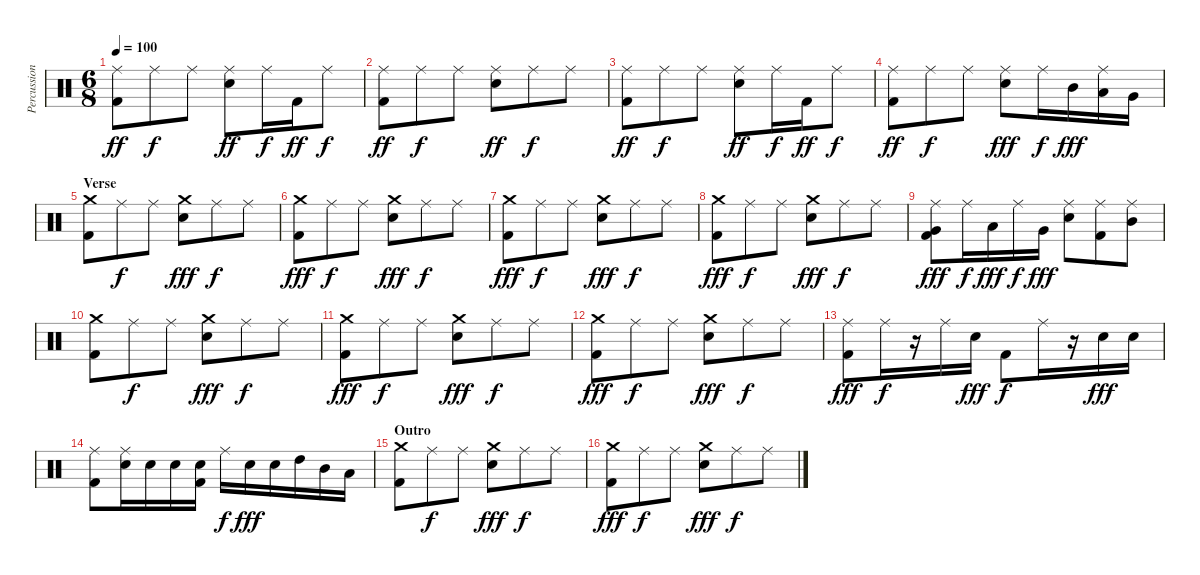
\track ("Percussion" "Percussion") {instrument percussion}
\staff {score}
\articulation defaults
\ts (6 8)
\tempo 100
\clef neutral
\ks c
("Kick (hit) 2" "Ride (middle)").8{dy ff} "Ride (middle)".8{dy f} "Ride (middle)".8 ("Electric Snare (hit)" "Ride (middle)").8{dy ff} "Ride (middle)".16{dy f} "Kick (hit) 2".16{dy ff} "Ride (middle)".8{dy f} |
("Kick (hit) 2" "Ride (middle)").8{dy ff} "Ride (middle)".8{dy f} "Ride (middle)".8 ("Electric Snare (hit)" "Ride (middle)").8{dy ff} "Ride (middle)".8{dy f} "Ride (middle)".8 |
("Kick (hit) 2" "Ride (middle)").8{dy ff} "Ride (middle)".8{dy f} "Ride (middle)".8 ("Electric Snare (hit)" "Ride (middle)").8{dy ff} "Ride (middle)".16{dy f} "Kick (hit) 2".16{dy ff} "Ride (middle)".8{dy f} |
("Kick (hit) 2" "Ride (middle)").8{dy ff} "Ride (middle)".8{dy f} "Ride (middle)".8 ("Electric Snare (hit)" "Ride (middle)").8{dy fff} "Ride (middle)".16{dy f} "Mid Tom (hit)".16{dy fff} ("Ride (middle)" "Low Tom (hit)").16 "Very Low Tom (hit)".16 |
\section ("" "Verse")
("Kick (hit) 2" "Crash medium (hit)").8 "Ride (middle)".8{dy f} "Ride (middle)".8 ("Electric Snare (hit)" "Crash medium (hit)").8{dy fff} "Ride (middle)".8{dy f} "Ride (middle)".8 |
("Kick (hit) 2" "Crash medium (hit)").8{dy fff} "Ride (middle)".8{dy f} "Ride (middle)".8 ("Electric Snare (hit)" "Crash medium (hit)").8{dy fff} "Ride (middle)".8{dy f} "Ride (middle)".8 |
("Kick (hit) 2" "Crash medium (hit)").8{dy fff} "Ride (middle)".8{dy f} "Ride (middle)".8 ("Electric Snare (hit)" "Crash medium (hit)").8{dy fff} "Ride (middle)".8{dy f} "Ride (middle)".8 |
("Kick (hit) 2" "Crash medium (hit)").8{dy fff} "Ride (middle)".8{dy f} "Ride (middle)".8 ("Electric Snare (hit)" "Crash medium (hit)").8{dy fff} "Ride (middle)".8{dy f} "Ride (middle)".8 |
("Ride (middle)" "Very Low Tom (hit)" "Kick (hit) 2").8{dy fff} "Ride (middle)".16{dy f} "Low Tom (hit)".16{dy fff} "Ride (middle)".16{dy f} "Very Low Tom (hit)".16{dy fff} ("Ride (middle)" "Electric Snare (hit)").8 ("Ride (middle)" "Kick (hit) 2").8 ("Ride (middle)" "Mid Tom (hit)").8 |
("Kick (hit) 2" "Crash medium (hit)").8 "Ride (middle)".8{dy f} "Ride (middle)".8 ("Electric Snare (hit)" "Crash medium (hit)").8{dy fff} "Ride (middle)".8{dy f} "Ride (middle)".8 |
("Kick (hit) 2" "Crash medium (hit)").8{dy fff} "Ride (middle)".8{dy f} "Ride (middle)".8 ("Electric Snare (hit)" "Crash medium (hit)").8{dy fff} "Ride (middle)".8{dy f} "Ride (middle)".8 |
("Kick (hit) 2" "Crash medium (hit)").8{dy fff} "Ride (middle)".8{dy f} "Ride (middle)".8 ("Electric Snare (hit)" "Crash medium (hit)").8{dy fff} "Ride (middle)".8{dy f} "Ride (middle)".8 |
("Ride (middle)" "Kick (hit) 2").8{dy fff} "Ride (middle)".16{dy f} r.16 "Ride (middle)".16 "Electric Snare (hit)".16{dy fff} "Kick (hit) 2".8{dy f} "Ride (middle)".16 r.16 "Electric Snare (hit)".16{dy fff} "Electric Snare (hit)".16 |
("Ride (middle)" "Kick (hit) 2").8 ("Ride (middle)" "Electric Snare (hit)").16 "Electric Snare (hit)".16 "Electric Snare (hit)".16 ("Kick (hit) 2" "Electric Snare (hit)").16 "Ride (middle)".16{dy f} "Electric Snare (hit)".16{dy fff} "Electric Snare (hit)".16 "High Tom (hit)".16 "Mid Tom (hit)".16 "Low Tom (hit)".16 |
\section ("" "Outro")
("Kick (hit) 2" "Crash medium (hit)").8 "Ride (middle)".8{dy f} "Ride (middle)".8 ("Electric Snare (hit)" "Crash medium (hit)").8{dy fff} "Ride (middle)".8{dy f} "Ride (middle)".8 |
("Kick (hit) 2" "Crash medium (hit)").8{dy fff} "Ride (middle)".8{dy f} "Ride (middle)".8 ("Electric Snare (hit)" "Crash medium (hit)").8{dy fff} "Ride (middle)".8{dy f} "Ride (middle)".8
